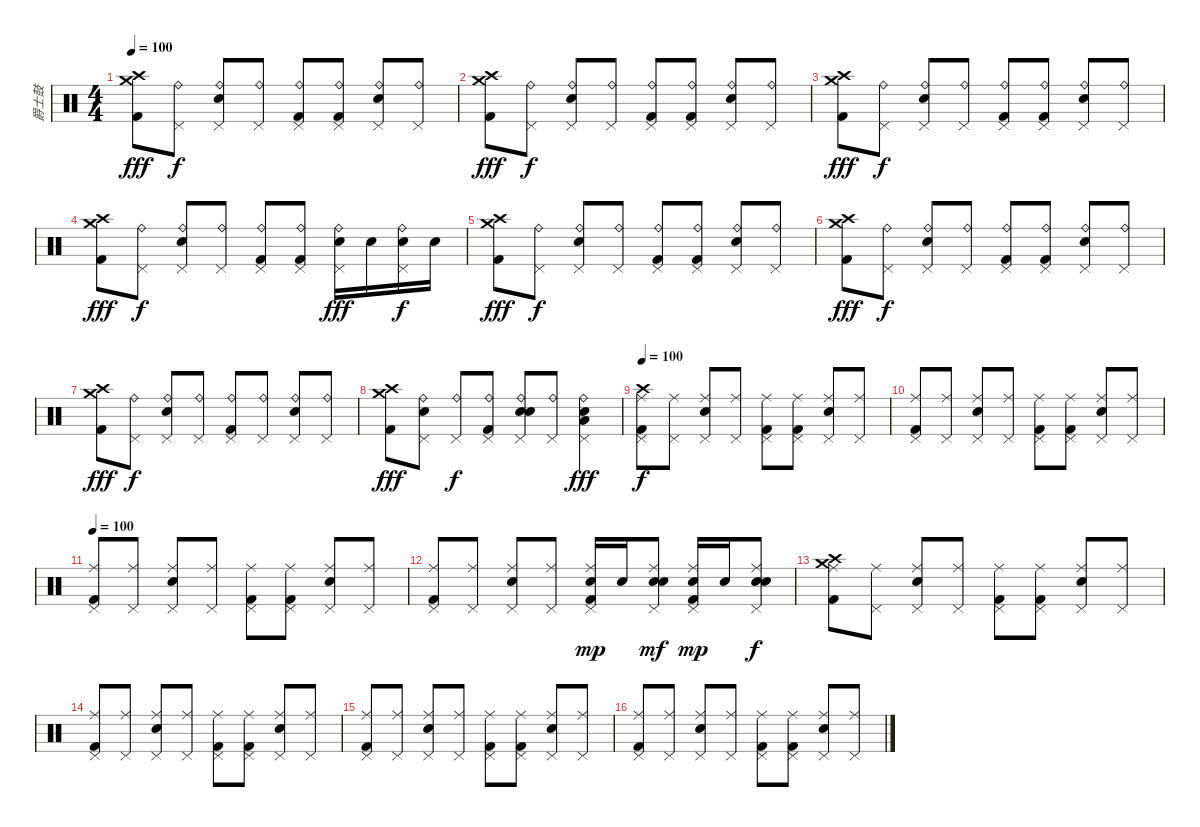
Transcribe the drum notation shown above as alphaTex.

\track ("爵士鼓" "爵士鼓") {instrument percussion}
\staff {score}
\articulation defaults
\ts (4 4)
\tempo 100
\clef neutral
\ks c
("Crash high (hit)" "Crash medium (hit)" "Kick (hit) 2").8{dy fff} ("Ride (bell)" "Pedal Hi-Hat (hit)").8{dy f} ("Ride (bell)" "Pedal Hi-Hat (hit)" "Snare (hit) 2").8 ("Ride (bell)" "Pedal Hi-Hat (hit)").8 ("Ride (bell)" "Pedal Hi-Hat (hit)" "Kick (hit) 2").8 ("Ride (bell)" "Pedal Hi-Hat (hit)" "Kick (hit) 2").8 ("Ride (bell)" "Pedal Hi-Hat (hit)" "Snare (hit) 2").8 ("Ride (bell)" "Pedal Hi-Hat (hit)").8 |
("Crash high (hit)" "Crash medium (hit)" "Kick (hit) 2").8{dy fff} ("Ride (bell)" "Pedal Hi-Hat (hit)").8{dy f} ("Ride (bell)" "Pedal Hi-Hat (hit)" "Snare (hit) 2").8 ("Ride (bell)" "Pedal Hi-Hat (hit)").8 ("Ride (bell)" "Pedal Hi-Hat (hit)" "Kick (hit) 2").8 ("Ride (bell)" "Pedal Hi-Hat (hit)" "Kick (hit) 2").8 ("Ride (bell)" "Pedal Hi-Hat (hit)" "Snare (hit) 2").8 ("Ride (bell)" "Pedal Hi-Hat (hit)").8 |
("Crash high (hit)" "Crash medium (hit)" "Kick (hit) 2").8{dy fff} ("Ride (bell)" "Pedal Hi-Hat (hit)").8{dy f} ("Ride (bell)" "Pedal Hi-Hat (hit)" "Snare (hit) 2").8 ("Ride (bell)" "Pedal Hi-Hat (hit)").8 ("Ride (bell)" "Pedal Hi-Hat (hit)" "Kick (hit) 2").8 ("Ride (bell)" "Pedal Hi-Hat (hit)" "Kick (hit) 2").8 ("Ride (bell)" "Pedal Hi-Hat (hit)" "Snare (hit) 2").8 ("Ride (bell)" "Pedal Hi-Hat (hit)").8 |
("Crash high (hit)" "Crash medium (hit)" "Kick (hit) 2").8{dy fff} ("Ride (bell)" "Pedal Hi-Hat (hit)").8{dy f} ("Ride (bell)" "Pedal Hi-Hat (hit)" "Snare (hit) 2").8 ("Ride (bell)" "Pedal Hi-Hat (hit)").8 ("Ride (bell)" "Pedal Hi-Hat (hit)" "Kick (hit) 2").8 ("Ride (bell)" "Pedal Hi-Hat (hit)" "Kick (hit) 2").8 ("Ride (bell)" "Pedal Hi-Hat (hit)" "Electric Snare (hit)").16{dy fff} "Electric Snare (hit)".16 ("Ride (bell)" "Pedal Hi-Hat (hit)" "Electric Snare (hit)").16{dy f} "Electric Snare (hit)".16 |
("Crash high (hit)" "Crash medium (hit)" "Kick (hit) 2").8{dy fff} ("Ride (bell)" "Pedal Hi-Hat (hit)").8{dy f} ("Ride (bell)" "Pedal Hi-Hat (hit)" "Snare (hit) 2").8 ("Ride (bell)" "Pedal Hi-Hat (hit)").8 ("Ride (bell)" "Pedal Hi-Hat (hit)" "Kick (hit) 2").8 ("Ride (bell)" "Pedal Hi-Hat (hit)" "Kick (hit) 2").8 ("Ride (bell)" "Pedal Hi-Hat (hit)" "Snare (hit) 2").8 ("Ride (bell)" "Pedal Hi-Hat (hit)").8 |
("Crash high (hit)" "Crash medium (hit)" "Kick (hit) 2").8{dy fff} ("Ride (bell)" "Pedal Hi-Hat (hit)").8{dy f} ("Ride (bell)" "Pedal Hi-Hat (hit)" "Snare (hit) 2").8 ("Ride (bell)" "Pedal Hi-Hat (hit)").8 ("Ride (bell)" "Pedal Hi-Hat (hit)" "Kick (hit) 2").8 ("Ride (bell)" "Pedal Hi-Hat (hit)" "Kick (hit) 2").8 ("Ride (bell)" "Pedal Hi-Hat (hit)" "Snare (hit) 2").8 ("Ride (bell)" "Pedal Hi-Hat (hit)").8 |
("Crash high (hit)" "Crash medium (hit)" "Kick (hit) 2").8{dy fff} ("Ride (bell)" "Pedal Hi-Hat (hit)").8{dy f} ("Ride (bell)" "Pedal Hi-Hat (hit)" "Snare (hit) 2").8 ("Ride (bell)" "Pedal Hi-Hat (hit)").8 ("Ride (bell)" "Pedal Hi-Hat (hit)" "Kick (hit) 2").8 ("Ride (bell)" "Pedal Hi-Hat (hit)").8 ("Ride (bell)" "Pedal Hi-Hat (hit)" "Snare (hit) 2").8 ("Ride (bell)" "Pedal Hi-Hat (hit)").8 |
("Crash high (hit)" "Crash medium (hit)" "Kick (hit) 2").8{dy fff} ("Ride (bell)" "Pedal Hi-Hat (hit)" "Snare (hit) 2").8 ("Ride (bell)" "Pedal Hi-Hat (hit)").8{dy f} ("Ride (bell)" "Pedal Hi-Hat (hit)" "Kick (hit) 2").8 ("Ride (bell)" "Pedal Hi-Hat (hit)" "Snare (hit) 2" "Electric Snare (hit)").8 ("Ride (bell)" "Pedal Hi-Hat (hit)").8 ("Ride (bell)" "Pedal Hi-Hat (hit)" "Snare (hit) 2" "Low Tom (hit)").4{dy fff} |
\tempo 100
("Pedal Hi-Hat (hit)" "Ride (middle)" "Crash high (hit)" "Kick (hit) 2").8{dy f} ("Pedal Hi-Hat (hit)" "Ride (middle)").8 ("Pedal Hi-Hat (hit)" "Ride (middle)" "Snare (hit) 2").8 ("Pedal Hi-Hat (hit)" "Ride (middle)").8 ("Pedal Hi-Hat (hit)" "Ride (middle)" "Kick (hit) 2").8 ("Pedal Hi-Hat (hit)" "Ride (middle)" "Kick (hit) 2").8 ("Pedal Hi-Hat (hit)" "Ride (middle)" "Snare (hit) 2").8 ("Pedal Hi-Hat (hit)" "Ride (middle)").8 |
("Pedal Hi-Hat (hit)" "Ride (middle)" "Kick (hit) 2").8 ("Pedal Hi-Hat (hit)" "Ride (middle)").8 ("Pedal Hi-Hat (hit)" "Ride (middle)" "Snare (hit) 2").8 ("Pedal Hi-Hat (hit)" "Ride (middle)").8 ("Pedal Hi-Hat (hit)" "Ride (middle)" "Kick (hit) 2").8 ("Pedal Hi-Hat (hit)" "Ride (middle)" "Kick (hit) 2").8 ("Pedal Hi-Hat (hit)" "Ride (middle)" "Snare (hit) 2").8 ("Pedal Hi-Hat (hit)" "Ride (middle)").8 |
\tempo 100
("Pedal Hi-Hat (hit)" "Ride (middle)" "Kick (hit) 2").8 ("Pedal Hi-Hat (hit)" "Ride (middle)").8 ("Pedal Hi-Hat (hit)" "Ride (middle)" "Snare (hit) 2").8 ("Pedal Hi-Hat (hit)" "Ride (middle)").8 ("Pedal Hi-Hat (hit)" "Ride (middle)" "Kick (hit) 2").8 ("Pedal Hi-Hat (hit)" "Ride (middle)" "Kick (hit) 2").8 ("Pedal Hi-Hat (hit)" "Ride (middle)" "Snare (hit) 2").8 ("Pedal Hi-Hat (hit)" "Ride (middle)").8 |
("Pedal Hi-Hat (hit)" "Ride (middle)" "Kick (hit) 2").8 ("Pedal Hi-Hat (hit)" "Ride (middle)").8 ("Pedal Hi-Hat (hit)" "Ride (middle)" "Snare (hit) 2").8 ("Pedal Hi-Hat (hit)" "Ride (middle)").8 ("Pedal Hi-Hat (hit)" "Ride (middle)" "Electric Snare (hit)" "Kick (hit) 2").16{dy mp} "Electric Snare (hit)".16 ("Pedal Hi-Hat (hit)" "Ride (middle)" "Snare (hit) 2" "Electric Snare (hit)").8{dy mf} ("Pedal Hi-Hat (hit)" "Ride (middle)" "Electric Snare (hit)" "Kick (hit) 2").16{dy mp} "Electric Snare (hit)".16 ("Pedal Hi-Hat (hit)" "Ride (middle)" "Snare (hit) 2" "Electric Snare (hit)").8{dy f} |
("Crash medium (hit)" "Ride (middle)" "Crash high (hit)" "Kick (hit) 2").8 ("Pedal Hi-Hat (hit)" "Ride (middle)").8 ("Pedal Hi-Hat (hit)" "Ride (middle)" "Snare (hit) 2").8 ("Pedal Hi-Hat (hit)" "Ride (middle)").8 ("Pedal Hi-Hat (hit)" "Ride (middle)" "Kick (hit) 2").8 ("Pedal Hi-Hat (hit)" "Ride (middle)" "Kick (hit) 2").8 ("Pedal Hi-Hat (hit)" "Ride (middle)" "Snare (hit) 2").8 ("Pedal Hi-Hat (hit)" "Ride (middle)").8 |
("Pedal Hi-Hat (hit)" "Ride (middle)" "Kick (hit) 2").8 ("Pedal Hi-Hat (hit)" "Ride (middle)").8 ("Pedal Hi-Hat (hit)" "Ride (middle)" "Snare (hit) 2").8 ("Pedal Hi-Hat (hit)" "Ride (middle)").8 ("Pedal Hi-Hat (hit)" "Ride (middle)" "Kick (hit) 2").8 ("Pedal Hi-Hat (hit)" "Ride (middle)" "Kick (hit) 2").8 ("Pedal Hi-Hat (hit)" "Ride (middle)" "Snare (hit) 2").8 ("Pedal Hi-Hat (hit)" "Ride (middle)").8 |
("Pedal Hi-Hat (hit)" "Ride (middle)" "Kick (hit) 2").8 ("Pedal Hi-Hat (hit)" "Ride (middle)").8 ("Pedal Hi-Hat (hit)" "Ride (middle)" "Snare (hit) 2").8 ("Pedal Hi-Hat (hit)" "Ride (middle)").8 ("Pedal Hi-Hat (hit)" "Ride (middle)" "Kick (hit) 2").8 ("Pedal Hi-Hat (hit)" "Ride (middle)" "Kick (hit) 2").8 ("Pedal Hi-Hat (hit)" "Ride (middle)" "Snare (hit) 2").8 ("Pedal Hi-Hat (hit)" "Ride (middle)").8 |
("Pedal Hi-Hat (hit)" "Ride (middle)" "Kick (hit) 2").8 ("Pedal Hi-Hat (hit)" "Ride (middle)").8 ("Pedal Hi-Hat (hit)" "Ride (middle)" "Snare (hit) 2").8 ("Pedal Hi-Hat (hit)" "Ride (middle)").8 ("Pedal Hi-Hat (hit)" "Ride (middle)" "Kick (hit) 2").8 ("Pedal Hi-Hat (hit)" "Ride (middle)" "Kick (hit) 2").8 ("Pedal Hi-Hat (hit)" "Ride (middle)" "Snare (hit) 2").8 ("Pedal Hi-Hat (hit)" "Ride (middle)").8
